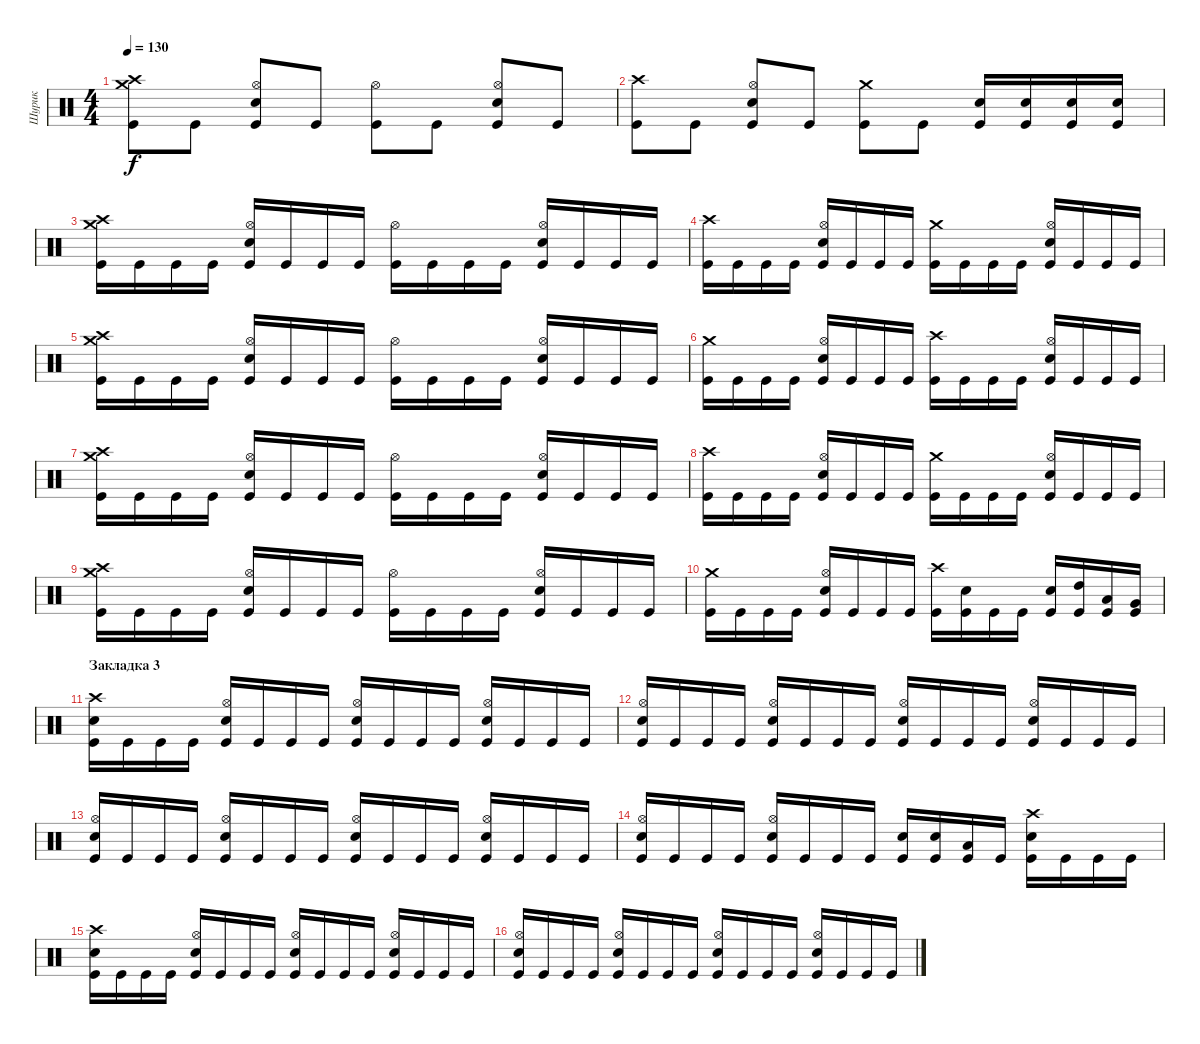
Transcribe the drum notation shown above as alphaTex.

\track ("Шурик" "Шурик") {instrument percussion}
\staff {score}
\articulation defaults
\ts (4 4)
\tempo 130
\clef neutral
\ks c
("Crash medium (hit)" "Crash high (hit)" "Kick (hit)").8{dy f} "Kick (hit)".8 ("Hi-Hat (open)" "Electric Snare (hit)" "Kick (hit)").8 "Kick (hit)".8 ("Hi-Hat (open)" "Kick (hit)").8 "Kick (hit)".8 ("Hi-Hat (open)" "Electric Snare (hit)" "Kick (hit)").8 "Kick (hit)".8 |
("Crash high (hit)" "Kick (hit)").8 "Kick (hit)".8 ("Hi-Hat (open)" "Electric Snare (hit)" "Kick (hit)").8 "Kick (hit)".8 ("Crash medium (hit)" "Kick (hit)").8 "Kick (hit)".8 ("Electric Snare (hit)" "Kick (hit)").16 ("Electric Snare (hit)" "Kick (hit)").16 ("Electric Snare (hit)" "Kick (hit)").16 ("Electric Snare (hit)" "Kick (hit)").16 |
("Crash medium (hit)" "Crash high (hit)" "Kick (hit)").16 "Kick (hit)".16 "Kick (hit)".16 "Kick (hit)".16 ("Hi-Hat (open)" "Electric Snare (hit)" "Kick (hit)").16 "Kick (hit)".16 "Kick (hit)".16 "Kick (hit)".16 ("Hi-Hat (open)" "Kick (hit)").16 "Kick (hit)".16 "Kick (hit)".16 "Kick (hit)".16 ("Hi-Hat (open)" "Electric Snare (hit)" "Kick (hit)").16 "Kick (hit)".16 "Kick (hit)".16 "Kick (hit)".16 |
("Crash high (hit)" "Kick (hit)").16 "Kick (hit)".16 "Kick (hit)".16 "Kick (hit)".16 ("Hi-Hat (open)" "Electric Snare (hit)" "Kick (hit)").16 "Kick (hit)".16 "Kick (hit)".16 "Kick (hit)".16 ("Crash medium (hit)" "Kick (hit)").16 "Kick (hit)".16 "Kick (hit)".16 "Kick (hit)".16 ("Hi-Hat (open)" "Electric Snare (hit)" "Kick (hit)").16 "Kick (hit)".16 "Kick (hit)".16 "Kick (hit)".16 |
("Crash medium (hit)" "Crash high (hit)" "Kick (hit)").16 "Kick (hit)".16 "Kick (hit)".16 "Kick (hit)".16 ("Hi-Hat (open)" "Electric Snare (hit)" "Kick (hit)").16 "Kick (hit)".16 "Kick (hit)".16 "Kick (hit)".16 ("Hi-Hat (open)" "Kick (hit)").16 "Kick (hit)".16 "Kick (hit)".16 "Kick (hit)".16 ("Hi-Hat (open)" "Electric Snare (hit)" "Kick (hit)").16 "Kick (hit)".16 "Kick (hit)".16 "Kick (hit)".16 |
("Crash medium (hit)" "Kick (hit)").16 "Kick (hit)".16 "Kick (hit)".16 "Kick (hit)".16 ("Hi-Hat (open)" "Electric Snare (hit)" "Kick (hit)").16 "Kick (hit)".16 "Kick (hit)".16 "Kick (hit)".16 ("Crash high (hit)" "Kick (hit)").16 "Kick (hit)".16 "Kick (hit)".16 "Kick (hit)".16 ("Hi-Hat (open)" "Electric Snare (hit)" "Kick (hit)").16 "Kick (hit)".16 "Kick (hit)".16 "Kick (hit)".16 |
("Crash medium (hit)" "Crash high (hit)" "Kick (hit)").16 "Kick (hit)".16 "Kick (hit)".16 "Kick (hit)".16 ("Hi-Hat (open)" "Electric Snare (hit)" "Kick (hit)").16 "Kick (hit)".16 "Kick (hit)".16 "Kick (hit)".16 ("Hi-Hat (open)" "Kick (hit)").16 "Kick (hit)".16 "Kick (hit)".16 "Kick (hit)".16 ("Hi-Hat (open)" "Electric Snare (hit)" "Kick (hit)").16 "Kick (hit)".16 "Kick (hit)".16 "Kick (hit)".16 |
("Crash high (hit)" "Kick (hit)").16 "Kick (hit)".16 "Kick (hit)".16 "Kick (hit)".16 ("Hi-Hat (open)" "Electric Snare (hit)" "Kick (hit)").16 "Kick (hit)".16 "Kick (hit)".16 "Kick (hit)".16 ("Crash medium (hit)" "Kick (hit)").16 "Kick (hit)".16 "Kick (hit)".16 "Kick (hit)".16 ("Hi-Hat (open)" "Electric Snare (hit)" "Kick (hit)").16 "Kick (hit)".16 "Kick (hit)".16 "Kick (hit)".16 |
("Crash medium (hit)" "Crash high (hit)" "Kick (hit)").16 "Kick (hit)".16 "Kick (hit)".16 "Kick (hit)".16 ("Hi-Hat (open)" "Electric Snare (hit)" "Kick (hit)").16 "Kick (hit)".16 "Kick (hit)".16 "Kick (hit)".16 ("Hi-Hat (open)" "Kick (hit)").16 "Kick (hit)".16 "Kick (hit)".16 "Kick (hit)".16 ("Hi-Hat (open)" "Electric Snare (hit)" "Kick (hit)").16 "Kick (hit)".16 "Kick (hit)".16 "Kick (hit)".16 |
("Crash medium (hit)" "Kick (hit)").16 "Kick (hit)".16 "Kick (hit)".16 "Kick (hit)".16 ("Hi-Hat (open)" "Electric Snare (hit)" "Kick (hit)").16 "Kick (hit)".16 "Kick (hit)".16 "Kick (hit)".16 ("Crash high (hit)" "Kick (hit)").16 ("Electric Snare (hit)" "Kick (hit)").16 "Kick (hit)".16 "Kick (hit)".16 ("Electric Snare (hit)" "Kick (hit)").16 ("High Tom (hit)" "Kick (hit)").16 ("Low Tom (hit)" "Kick (hit)").16 ("Very Low Tom (hit)" "Kick (hit)").16 |
\section ("" "Закладка 3")
("Crash high (hit)" "Electric Snare (hit)" "Kick (hit)").16 "Kick (hit)".16 "Kick (hit)".16 "Kick (hit)".16 ("Hi-Hat (open)" "Electric Snare (hit)" "Kick (hit)").16 "Kick (hit)".16 "Kick (hit)".16 "Kick (hit)".16 ("Hi-Hat (open)" "Electric Snare (hit)" "Kick (hit)").16 "Kick (hit)".16 "Kick (hit)".16 "Kick (hit)".16 ("Hi-Hat (open)" "Electric Snare (hit)" "Kick (hit)").16 "Kick (hit)".16 "Kick (hit)".16 "Kick (hit)".16 |
("Hi-Hat (open)" "Electric Snare (hit)" "Kick (hit)").16 "Kick (hit)".16 "Kick (hit)".16 "Kick (hit)".16 ("Hi-Hat (open)" "Electric Snare (hit)" "Kick (hit)").16 "Kick (hit)".16 "Kick (hit)".16 "Kick (hit)".16 ("Hi-Hat (open)" "Electric Snare (hit)" "Kick (hit)").16 "Kick (hit)".16 "Kick (hit)".16 "Kick (hit)".16 ("Hi-Hat (open)" "Electric Snare (hit)" "Kick (hit)").16 "Kick (hit)".16 "Kick (hit)".16 "Kick (hit)".16 |
("Hi-Hat (open)" "Electric Snare (hit)" "Kick (hit)").16 "Kick (hit)".16 "Kick (hit)".16 "Kick (hit)".16 ("Hi-Hat (open)" "Electric Snare (hit)" "Kick (hit)").16 "Kick (hit)".16 "Kick (hit)".16 "Kick (hit)".16 ("Hi-Hat (open)" "Electric Snare (hit)" "Kick (hit)").16 "Kick (hit)".16 "Kick (hit)".16 "Kick (hit)".16 ("Hi-Hat (open)" "Electric Snare (hit)" "Kick (hit)").16 "Kick (hit)".16 "Kick (hit)".16 "Kick (hit)".16 |
("Hi-Hat (open)" "Electric Snare (hit)" "Kick (hit)").16 "Kick (hit)".16 "Kick (hit)".16 "Kick (hit)".16 ("Hi-Hat (open)" "Electric Snare (hit)" "Kick (hit)").16 "Kick (hit)".16 "Kick (hit)".16 "Kick (hit)".16 ("Electric Snare (hit)" "Kick (hit)").16 ("Electric Snare (hit)" "Kick (hit)").16 ("Low Tom (hit)" "Kick (hit)").16 "Kick (hit)".16 ("Crash high (hit)" "Electric Snare (hit)" "Kick (hit)").16 "Kick (hit)".16 "Kick (hit)".16 "Kick (hit)".16 |
("Crash high (hit)" "Electric Snare (hit)" "Kick (hit)").16 "Kick (hit)".16 "Kick (hit)".16 "Kick (hit)".16 ("Hi-Hat (open)" "Electric Snare (hit)" "Kick (hit)").16 "Kick (hit)".16 "Kick (hit)".16 "Kick (hit)".16 ("Hi-Hat (open)" "Electric Snare (hit)" "Kick (hit)").16 "Kick (hit)".16 "Kick (hit)".16 "Kick (hit)".16 ("Hi-Hat (open)" "Electric Snare (hit)" "Kick (hit)").16 "Kick (hit)".16 "Kick (hit)".16 "Kick (hit)".16 |
("Hi-Hat (open)" "Electric Snare (hit)" "Kick (hit)").16 "Kick (hit)".16 "Kick (hit)".16 "Kick (hit)".16 ("Hi-Hat (open)" "Electric Snare (hit)" "Kick (hit)").16 "Kick (hit)".16 "Kick (hit)".16 "Kick (hit)".16 ("Hi-Hat (open)" "Electric Snare (hit)" "Kick (hit)").16 "Kick (hit)".16 "Kick (hit)".16 "Kick (hit)".16 ("Hi-Hat (open)" "Electric Snare (hit)" "Kick (hit)").16 "Kick (hit)".16 "Kick (hit)".16 "Kick (hit)".16
